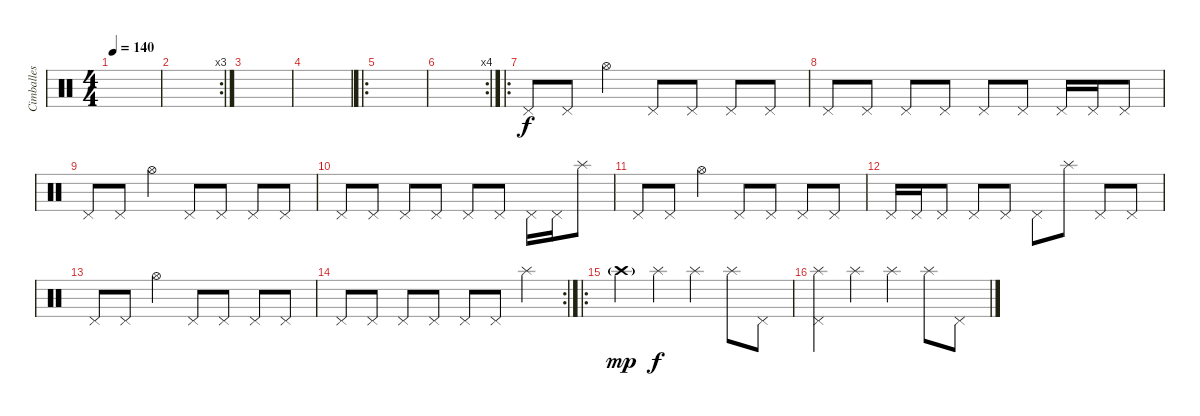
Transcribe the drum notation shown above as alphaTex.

\track ("Cimballes" "Cimballes") {instrument percussion}
\staff {score}
\articulation defaults
\ts (4 4)
\tempo 140
\clef neutral
\ks c
|
\rc 3
|
|
|
\ro
|
\rc 4
|
\ro "Pedal Hi-Hat (hit)".8 "Pedal Hi-Hat (hit)".8 "Hi-Hat (open)".4 "Pedal Hi-Hat (hit)".8 "Pedal Hi-Hat (hit)".8 "Pedal Hi-Hat (hit)".8 "Pedal Hi-Hat (hit)".8
|
"Pedal Hi-Hat (hit)".8 "Pedal Hi-Hat (hit)".8 "Pedal Hi-Hat (hit)".8 "Pedal Hi-Hat (hit)".8 "Pedal Hi-Hat (hit)".8 "Pedal Hi-Hat (hit)".8 "Pedal Hi-Hat (hit)".16 "Pedal Hi-Hat (hit)".16 "Pedal Hi-Hat (hit)".8 |
"Pedal Hi-Hat (hit)".8 "Pedal Hi-Hat (hit)".8 "Hi-Hat (open)".4 "Pedal Hi-Hat (hit)".8 "Pedal Hi-Hat (hit)".8 "Pedal Hi-Hat (hit)".8 "Pedal Hi-Hat (hit)".8 |
"Pedal Hi-Hat (hit)".8 "Pedal Hi-Hat (hit)".8 "Pedal Hi-Hat (hit)".8 "Pedal Hi-Hat (hit)".8 "Pedal Hi-Hat (hit)".8 "Pedal Hi-Hat (hit)".8 "Pedal Hi-Hat (hit)".16 "Pedal Hi-Hat (hit)".16 "Splash (hit)".8 |
"Pedal Hi-Hat (hit)".8 "Pedal Hi-Hat (hit)".8 "Hi-Hat (open)".4 "Pedal Hi-Hat (hit)".8 "Pedal Hi-Hat (hit)".8 "Pedal Hi-Hat (hit)".8 "Pedal Hi-Hat (hit)".8 |
"Pedal Hi-Hat (hit)".16 "Pedal Hi-Hat (hit)".16 "Pedal Hi-Hat (hit)".8 "Pedal Hi-Hat (hit)".8 "Pedal Hi-Hat (hit)".8 "Pedal Hi-Hat (hit)".8 "Splash (hit)".8 "Pedal Hi-Hat (hit)".8 "Pedal Hi-Hat (hit)".8 |
"Pedal Hi-Hat (hit)".8 "Pedal Hi-Hat (hit)".8 "Hi-Hat (open)".4 "Pedal Hi-Hat (hit)".8 "Pedal Hi-Hat (hit)".8 "Pedal Hi-Hat (hit)".8 "Pedal Hi-Hat (hit)".8 |
\rc 2 "Pedal Hi-Hat (hit)".8 "Pedal Hi-Hat (hit)".8 "Pedal Hi-Hat (hit)".8 "Pedal Hi-Hat (hit)".8 "Pedal Hi-Hat (hit)".8 "Pedal Hi-Hat (hit)".8 "Splash (hit)".4
|
\ro "Crash high (hit)"{g}.4{dy mp} "Splash (hit)".4{dy f} "Splash (hit)".4 "Splash (hit)".8 "Pedal Hi-Hat (hit)".8
|
("Splash (hit)" "Pedal Hi-Hat (hit)").4 "Splash (hit)".4 "Splash (hit)".4 "Splash (hit)".8 "Pedal Hi-Hat (hit)".8
